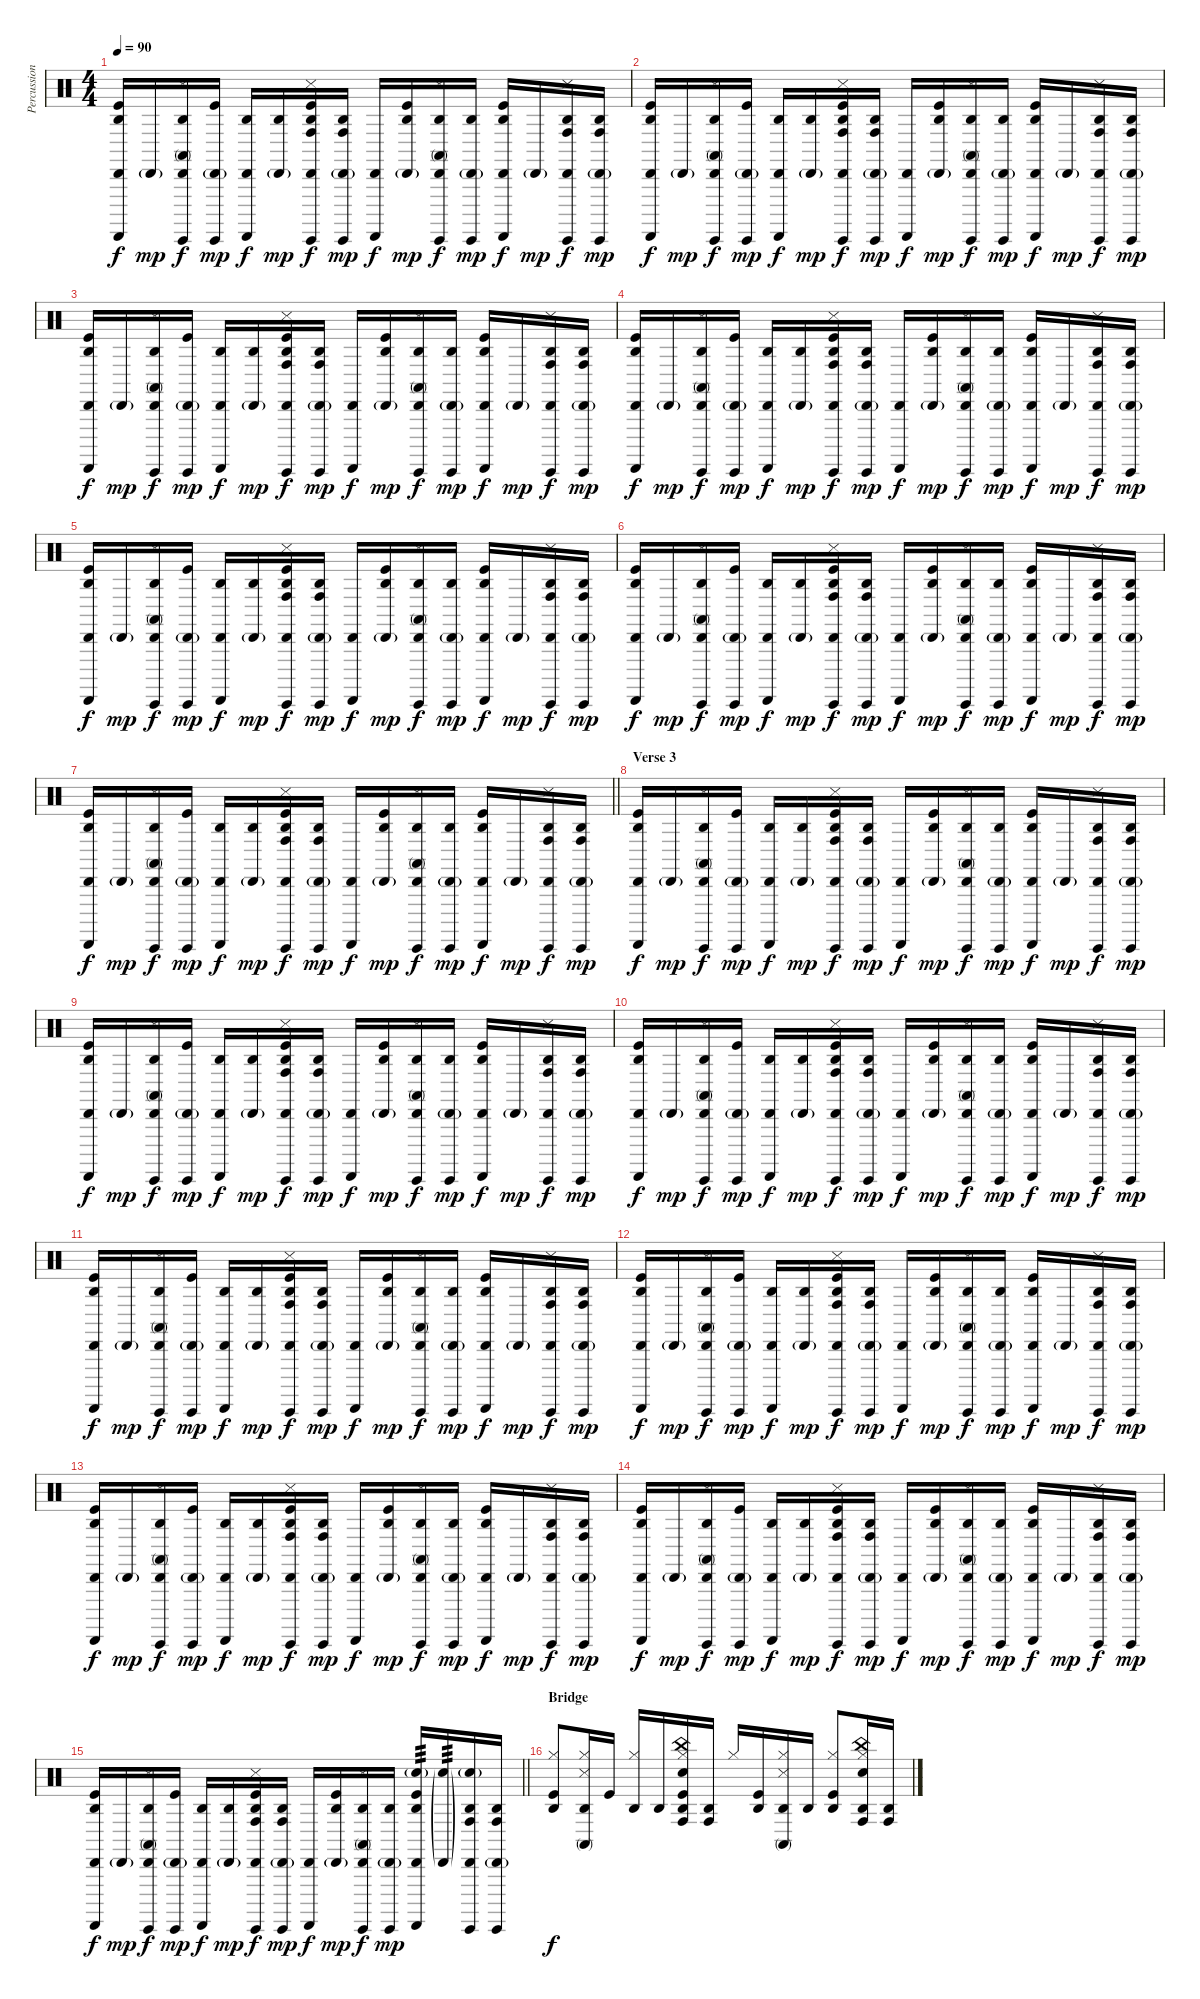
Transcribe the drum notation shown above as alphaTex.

\track ("Percussion" "Percussion") {instrument percussion}
\staff {score}
\articulation defaults
\ts (4 4)
\tempo 90
\clef neutral
\ks c
("Agogo high (hit)" "Cabasa (hit)" "Guiro (scrap-return)" "Kick (hit)").16{dy f} "Cabasa (hit)"{g}.16{dy mp} ("Agogo high (hit)" "Cabasa (hit)" "Conga high (mute)" "Snare (side stick) 3" "Guiro (hit)").16{dy f} ("Cabasa (hit)"{g} "Guiro (hit)" "Kick (hit)").16{dy mp} ("Agogo high (hit)" "Cabasa (hit)" "Guiro (scrap-return)").16{dy f} ("Agogo high (hit)" "Cabasa (hit)"{g}).16{dy mp} ("Agogo high (hit)" "Cabasa (hit)" "Conga high (hit)" "Snare (side stick) 3" "Guiro (hit)" "Kick (hit)").16{dy f} ("Agogo high (hit)" "Cabasa (hit)"{g} "Conga high (hit)" "Guiro (hit)").16{dy mp} ("Cabasa (hit)" "Guiro (scrap-return)").16{dy f} ("Agogo high (hit)" "Cabasa (hit)"{g} "Kick (hit)").16{dy mp} ("Agogo high (hit)" "Cabasa (hit)" "Conga high (mute)" "Snare (side stick) 3" "Guiro (hit)").16{dy f} ("Agogo high (hit)" "Cabasa (hit)"{g} "Guiro (hit)").16{dy mp} ("Agogo high (hit)" "Cabasa (hit)" "Guiro (scrap-return)" "Kick (hit)").16{dy f} "Cabasa (hit)"{g}.16{dy mp} ("Agogo high (hit)" "Cabasa (hit)" "Conga high (hit)" "Snare (side stick) 3" "Guiro (hit)").16{dy f} ("Agogo high (hit)" "Cabasa (hit)"{g} "Conga high (hit)" "Guiro (hit)").16{dy mp} |
("Agogo high (hit)" "Cabasa (hit)" "Guiro (scrap-return)" "Kick (hit)").16{dy f} "Cabasa (hit)"{g}.16{dy mp} ("Agogo high (hit)" "Cabasa (hit)" "Conga high (mute)" "Snare (side stick) 3" "Guiro (hit)").16{dy f} ("Cabasa (hit)"{g} "Guiro (hit)" "Kick (hit)").16{dy mp} ("Agogo high (hit)" "Cabasa (hit)" "Guiro (scrap-return)").16{dy f} ("Agogo high (hit)" "Cabasa (hit)"{g}).16{dy mp} ("Agogo high (hit)" "Cabasa (hit)" "Conga high (hit)" "Snare (side stick) 3" "Guiro (hit)" "Kick (hit)").16{dy f} ("Agogo high (hit)" "Cabasa (hit)"{g} "Conga high (hit)" "Guiro (hit)").16{dy mp} ("Cabasa (hit)" "Guiro (scrap-return)").16{dy f} ("Agogo high (hit)" "Cabasa (hit)"{g} "Kick (hit)").16{dy mp} ("Agogo high (hit)" "Cabasa (hit)" "Conga high (mute)" "Snare (side stick) 3" "Guiro (hit)").16{dy f} ("Agogo high (hit)" "Cabasa (hit)"{g} "Guiro (hit)").16{dy mp} ("Agogo high (hit)" "Cabasa (hit)" "Guiro (scrap-return)" "Kick (hit)").16{dy f} "Cabasa (hit)"{g}.16{dy mp} ("Agogo high (hit)" "Cabasa (hit)" "Conga high (hit)" "Snare (side stick) 3" "Guiro (hit)").16{dy f} ("Agogo high (hit)" "Cabasa (hit)"{g} "Conga high (hit)" "Guiro (hit)").16{dy mp} |
("Agogo high (hit)" "Cabasa (hit)" "Guiro (scrap-return)" "Kick (hit)").16{dy f} "Cabasa (hit)"{g}.16{dy mp} ("Agogo high (hit)" "Cabasa (hit)" "Conga high (mute)" "Snare (side stick) 3" "Guiro (hit)").16{dy f} ("Cabasa (hit)"{g} "Guiro (hit)" "Kick (hit)").16{dy mp} ("Agogo high (hit)" "Cabasa (hit)" "Guiro (scrap-return)").16{dy f} ("Agogo high (hit)" "Cabasa (hit)"{g}).16{dy mp} ("Agogo high (hit)" "Cabasa (hit)" "Conga high (hit)" "Snare (side stick) 3" "Guiro (hit)" "Kick (hit)").16{dy f} ("Agogo high (hit)" "Cabasa (hit)"{g} "Conga high (hit)" "Guiro (hit)").16{dy mp} ("Cabasa (hit)" "Guiro (scrap-return)").16{dy f} ("Agogo high (hit)" "Cabasa (hit)"{g} "Kick (hit)").16{dy mp} ("Agogo high (hit)" "Cabasa (hit)" "Conga high (mute)" "Snare (side stick) 3" "Guiro (hit)").16{dy f} ("Agogo high (hit)" "Cabasa (hit)"{g} "Guiro (hit)").16{dy mp} ("Agogo high (hit)" "Cabasa (hit)" "Guiro (scrap-return)" "Kick (hit)").16{dy f} "Cabasa (hit)"{g}.16{dy mp} ("Agogo high (hit)" "Cabasa (hit)" "Conga high (hit)" "Snare (side stick) 3" "Guiro (hit)").16{dy f} ("Agogo high (hit)" "Cabasa (hit)"{g} "Conga high (hit)" "Guiro (hit)").16{dy mp} |
("Agogo high (hit)" "Cabasa (hit)" "Guiro (scrap-return)" "Kick (hit)").16{dy f} "Cabasa (hit)"{g}.16{dy mp} ("Agogo high (hit)" "Cabasa (hit)" "Conga high (mute)" "Snare (side stick) 3" "Guiro (hit)").16{dy f} ("Cabasa (hit)"{g} "Guiro (hit)" "Kick (hit)").16{dy mp} ("Agogo high (hit)" "Cabasa (hit)" "Guiro (scrap-return)").16{dy f} ("Agogo high (hit)" "Cabasa (hit)"{g}).16{dy mp} ("Agogo high (hit)" "Cabasa (hit)" "Conga high (hit)" "Snare (side stick) 3" "Guiro (hit)" "Kick (hit)").16{dy f} ("Agogo high (hit)" "Cabasa (hit)"{g} "Conga high (hit)" "Guiro (hit)").16{dy mp} ("Cabasa (hit)" "Guiro (scrap-return)").16{dy f} ("Agogo high (hit)" "Cabasa (hit)"{g} "Kick (hit)").16{dy mp} ("Agogo high (hit)" "Cabasa (hit)" "Conga high (mute)" "Snare (side stick) 3" "Guiro (hit)").16{dy f} ("Agogo high (hit)" "Cabasa (hit)"{g} "Guiro (hit)").16{dy mp} ("Agogo high (hit)" "Cabasa (hit)" "Guiro (scrap-return)" "Kick (hit)").16{dy f} "Cabasa (hit)"{g}.16{dy mp} ("Agogo high (hit)" "Cabasa (hit)" "Conga high (hit)" "Snare (side stick) 3" "Guiro (hit)").16{dy f} ("Agogo high (hit)" "Cabasa (hit)"{g} "Conga high (hit)" "Guiro (hit)").16{dy mp} |
("Agogo high (hit)" "Cabasa (hit)" "Guiro (scrap-return)" "Kick (hit)").16{dy f} "Cabasa (hit)"{g}.16{dy mp} ("Agogo high (hit)" "Cabasa (hit)" "Conga high (mute)" "Snare (side stick) 3" "Guiro (hit)").16{dy f} ("Cabasa (hit)"{g} "Guiro (hit)" "Kick (hit)").16{dy mp} ("Agogo high (hit)" "Cabasa (hit)" "Guiro (scrap-return)").16{dy f} ("Agogo high (hit)" "Cabasa (hit)"{g}).16{dy mp} ("Agogo high (hit)" "Cabasa (hit)" "Conga high (hit)" "Snare (side stick) 3" "Guiro (hit)" "Kick (hit)").16{dy f} ("Agogo high (hit)" "Cabasa (hit)"{g} "Conga high (hit)" "Guiro (hit)").16{dy mp} ("Cabasa (hit)" "Guiro (scrap-return)").16{dy f} ("Agogo high (hit)" "Cabasa (hit)"{g} "Kick (hit)").16{dy mp} ("Agogo high (hit)" "Cabasa (hit)" "Conga high (mute)" "Snare (side stick) 3" "Guiro (hit)").16{dy f} ("Agogo high (hit)" "Cabasa (hit)"{g} "Guiro (hit)").16{dy mp} ("Agogo high (hit)" "Cabasa (hit)" "Guiro (scrap-return)" "Kick (hit)").16{dy f} "Cabasa (hit)"{g}.16{dy mp} ("Agogo high (hit)" "Cabasa (hit)" "Conga high (hit)" "Snare (side stick) 3" "Guiro (hit)").16{dy f} ("Agogo high (hit)" "Cabasa (hit)"{g} "Conga high (hit)" "Guiro (hit)").16{dy mp} |
("Agogo high (hit)" "Cabasa (hit)" "Guiro (scrap-return)" "Kick (hit)").16{dy f} "Cabasa (hit)"{g}.16{dy mp} ("Agogo high (hit)" "Cabasa (hit)" "Conga high (mute)" "Snare (side stick) 3" "Guiro (hit)").16{dy f} ("Cabasa (hit)"{g} "Guiro (hit)" "Kick (hit)").16{dy mp} ("Agogo high (hit)" "Cabasa (hit)" "Guiro (scrap-return)").16{dy f} ("Agogo high (hit)" "Cabasa (hit)"{g}).16{dy mp} ("Agogo high (hit)" "Cabasa (hit)" "Conga high (hit)" "Snare (side stick) 3" "Guiro (hit)" "Kick (hit)").16{dy f} ("Agogo high (hit)" "Cabasa (hit)"{g} "Conga high (hit)" "Guiro (hit)").16{dy mp} ("Cabasa (hit)" "Guiro (scrap-return)").16{dy f} ("Agogo high (hit)" "Cabasa (hit)"{g} "Kick (hit)").16{dy mp} ("Agogo high (hit)" "Cabasa (hit)" "Conga high (mute)" "Snare (side stick) 3" "Guiro (hit)").16{dy f} ("Agogo high (hit)" "Cabasa (hit)"{g} "Guiro (hit)").16{dy mp} ("Agogo high (hit)" "Cabasa (hit)" "Guiro (scrap-return)" "Kick (hit)").16{dy f} "Cabasa (hit)"{g}.16{dy mp} ("Agogo high (hit)" "Cabasa (hit)" "Conga high (hit)" "Snare (side stick) 3" "Guiro (hit)").16{dy f} ("Agogo high (hit)" "Cabasa (hit)"{g} "Conga high (hit)" "Guiro (hit)").16{dy mp} |
\barLineRight lightlight
("Agogo high (hit)" "Cabasa (hit)" "Guiro (scrap-return)" "Kick (hit)").16{dy f} "Cabasa (hit)"{g}.16{dy mp} ("Agogo high (hit)" "Cabasa (hit)" "Conga high (mute)" "Snare (side stick) 3" "Guiro (hit)").16{dy f} ("Cabasa (hit)"{g} "Guiro (hit)" "Kick (hit)").16{dy mp} ("Agogo high (hit)" "Cabasa (hit)" "Guiro (scrap-return)").16{dy f} ("Agogo high (hit)" "Cabasa (hit)"{g}).16{dy mp} ("Agogo high (hit)" "Cabasa (hit)" "Conga high (hit)" "Snare (side stick) 3" "Guiro (hit)" "Kick (hit)").16{dy f} ("Agogo high (hit)" "Cabasa (hit)"{g} "Conga high (hit)" "Guiro (hit)").16{dy mp} ("Cabasa (hit)" "Guiro (scrap-return)").16{dy f} ("Agogo high (hit)" "Cabasa (hit)"{g} "Kick (hit)").16{dy mp} ("Agogo high (hit)" "Cabasa (hit)" "Conga high (mute)" "Snare (side stick) 3" "Guiro (hit)").16{dy f} ("Agogo high (hit)" "Cabasa (hit)"{g} "Guiro (hit)").16{dy mp} ("Agogo high (hit)" "Cabasa (hit)" "Guiro (scrap-return)" "Kick (hit)").16{dy f} "Cabasa (hit)"{g}.16{dy mp} ("Agogo high (hit)" "Cabasa (hit)" "Conga high (hit)" "Snare (side stick) 3" "Guiro (hit)").16{dy f} ("Agogo high (hit)" "Cabasa (hit)"{g} "Conga high (hit)" "Guiro (hit)").16{dy mp} |
\section ("" "Verse 3")
("Agogo high (hit)" "Cabasa (hit)" "Guiro (scrap-return)" "Kick (hit)").16{dy f} "Cabasa (hit)"{g}.16{dy mp} ("Agogo high (hit)" "Cabasa (hit)" "Conga high (mute)" "Snare (side stick) 3" "Guiro (hit)").16{dy f} ("Cabasa (hit)"{g} "Guiro (hit)" "Kick (hit)").16{dy mp} ("Agogo high (hit)" "Cabasa (hit)" "Guiro (scrap-return)").16{dy f} ("Agogo high (hit)" "Cabasa (hit)"{g}).16{dy mp} ("Agogo high (hit)" "Cabasa (hit)" "Conga high (hit)" "Snare (side stick) 3" "Guiro (hit)" "Kick (hit)").16{dy f} ("Agogo high (hit)" "Cabasa (hit)"{g} "Conga high (hit)" "Guiro (hit)").16{dy mp} ("Cabasa (hit)" "Guiro (scrap-return)").16{dy f} ("Agogo high (hit)" "Cabasa (hit)"{g} "Kick (hit)").16{dy mp} ("Agogo high (hit)" "Cabasa (hit)" "Conga high (mute)" "Snare (side stick) 3" "Guiro (hit)").16{dy f} ("Agogo high (hit)" "Cabasa (hit)"{g} "Guiro (hit)").16{dy mp} ("Agogo high (hit)" "Cabasa (hit)" "Guiro (scrap-return)" "Kick (hit)").16{dy f} "Cabasa (hit)"{g}.16{dy mp} ("Agogo high (hit)" "Cabasa (hit)" "Conga high (hit)" "Snare (side stick) 3" "Guiro (hit)").16{dy f} ("Agogo high (hit)" "Cabasa (hit)"{g} "Conga high (hit)" "Guiro (hit)").16{dy mp} |
("Agogo high (hit)" "Cabasa (hit)" "Guiro (scrap-return)" "Kick (hit)").16{dy f} "Cabasa (hit)"{g}.16{dy mp} ("Agogo high (hit)" "Cabasa (hit)" "Conga high (mute)" "Snare (side stick) 3" "Guiro (hit)").16{dy f} ("Cabasa (hit)"{g} "Guiro (hit)" "Kick (hit)").16{dy mp} ("Agogo high (hit)" "Cabasa (hit)" "Guiro (scrap-return)").16{dy f} ("Agogo high (hit)" "Cabasa (hit)"{g}).16{dy mp} ("Agogo high (hit)" "Cabasa (hit)" "Conga high (hit)" "Snare (side stick) 3" "Guiro (hit)" "Kick (hit)").16{dy f} ("Agogo high (hit)" "Cabasa (hit)"{g} "Conga high (hit)" "Guiro (hit)").16{dy mp} ("Cabasa (hit)" "Guiro (scrap-return)").16{dy f} ("Agogo high (hit)" "Cabasa (hit)"{g} "Kick (hit)").16{dy mp} ("Agogo high (hit)" "Cabasa (hit)" "Conga high (mute)" "Snare (side stick) 3" "Guiro (hit)").16{dy f} ("Agogo high (hit)" "Cabasa (hit)"{g} "Guiro (hit)").16{dy mp} ("Agogo high (hit)" "Cabasa (hit)" "Guiro (scrap-return)" "Kick (hit)").16{dy f} "Cabasa (hit)"{g}.16{dy mp} ("Agogo high (hit)" "Cabasa (hit)" "Conga high (hit)" "Snare (side stick) 3" "Guiro (hit)").16{dy f} ("Agogo high (hit)" "Cabasa (hit)"{g} "Conga high (hit)" "Guiro (hit)").16{dy mp} |
("Agogo high (hit)" "Cabasa (hit)" "Guiro (scrap-return)" "Kick (hit)").16{dy f} "Cabasa (hit)"{g}.16{dy mp} ("Agogo high (hit)" "Cabasa (hit)" "Conga high (mute)" "Snare (side stick) 3" "Guiro (hit)").16{dy f} ("Cabasa (hit)"{g} "Guiro (hit)" "Kick (hit)").16{dy mp} ("Agogo high (hit)" "Cabasa (hit)" "Guiro (scrap-return)").16{dy f} ("Agogo high (hit)" "Cabasa (hit)"{g}).16{dy mp} ("Agogo high (hit)" "Cabasa (hit)" "Conga high (hit)" "Snare (side stick) 3" "Guiro (hit)" "Kick (hit)").16{dy f} ("Agogo high (hit)" "Cabasa (hit)"{g} "Conga high (hit)" "Guiro (hit)").16{dy mp} ("Cabasa (hit)" "Guiro (scrap-return)").16{dy f} ("Agogo high (hit)" "Cabasa (hit)"{g} "Kick (hit)").16{dy mp} ("Agogo high (hit)" "Cabasa (hit)" "Conga high (mute)" "Snare (side stick) 3" "Guiro (hit)").16{dy f} ("Agogo high (hit)" "Cabasa (hit)"{g} "Guiro (hit)").16{dy mp} ("Agogo high (hit)" "Cabasa (hit)" "Guiro (scrap-return)" "Kick (hit)").16{dy f} "Cabasa (hit)"{g}.16{dy mp} ("Agogo high (hit)" "Cabasa (hit)" "Conga high (hit)" "Snare (side stick) 3" "Guiro (hit)").16{dy f} ("Agogo high (hit)" "Cabasa (hit)"{g} "Conga high (hit)" "Guiro (hit)").16{dy mp} |
("Agogo high (hit)" "Cabasa (hit)" "Guiro (scrap-return)" "Kick (hit)").16{dy f} "Cabasa (hit)"{g}.16{dy mp} ("Agogo high (hit)" "Cabasa (hit)" "Conga high (mute)" "Snare (side stick) 3" "Guiro (hit)").16{dy f} ("Cabasa (hit)"{g} "Guiro (hit)" "Kick (hit)").16{dy mp} ("Agogo high (hit)" "Cabasa (hit)" "Guiro (scrap-return)").16{dy f} ("Agogo high (hit)" "Cabasa (hit)"{g}).16{dy mp} ("Agogo high (hit)" "Cabasa (hit)" "Conga high (hit)" "Snare (side stick) 3" "Guiro (hit)" "Kick (hit)").16{dy f} ("Agogo high (hit)" "Cabasa (hit)"{g} "Conga high (hit)" "Guiro (hit)").16{dy mp} ("Cabasa (hit)" "Guiro (scrap-return)").16{dy f} ("Agogo high (hit)" "Cabasa (hit)"{g} "Kick (hit)").16{dy mp} ("Agogo high (hit)" "Cabasa (hit)" "Conga high (mute)" "Snare (side stick) 3" "Guiro (hit)").16{dy f} ("Agogo high (hit)" "Cabasa (hit)"{g} "Guiro (hit)").16{dy mp} ("Agogo high (hit)" "Cabasa (hit)" "Guiro (scrap-return)" "Kick (hit)").16{dy f} "Cabasa (hit)"{g}.16{dy mp} ("Agogo high (hit)" "Cabasa (hit)" "Conga high (hit)" "Snare (side stick) 3" "Guiro (hit)").16{dy f} ("Agogo high (hit)" "Cabasa (hit)"{g} "Conga high (hit)" "Guiro (hit)").16{dy mp} |
("Agogo high (hit)" "Cabasa (hit)" "Guiro (scrap-return)" "Kick (hit)").16{dy f} "Cabasa (hit)"{g}.16{dy mp} ("Agogo high (hit)" "Cabasa (hit)" "Conga high (mute)" "Snare (side stick) 3" "Guiro (hit)").16{dy f} ("Cabasa (hit)"{g} "Guiro (hit)" "Kick (hit)").16{dy mp} ("Agogo high (hit)" "Cabasa (hit)" "Guiro (scrap-return)").16{dy f} ("Agogo high (hit)" "Cabasa (hit)"{g}).16{dy mp} ("Agogo high (hit)" "Cabasa (hit)" "Conga high (hit)" "Snare (side stick) 3" "Guiro (hit)" "Kick (hit)").16{dy f} ("Agogo high (hit)" "Cabasa (hit)"{g} "Conga high (hit)" "Guiro (hit)").16{dy mp} ("Cabasa (hit)" "Guiro (scrap-return)").16{dy f} ("Agogo high (hit)" "Cabasa (hit)"{g} "Kick (hit)").16{dy mp} ("Agogo high (hit)" "Cabasa (hit)" "Conga high (mute)" "Snare (side stick) 3" "Guiro (hit)").16{dy f} ("Agogo high (hit)" "Cabasa (hit)"{g} "Guiro (hit)").16{dy mp} ("Agogo high (hit)" "Cabasa (hit)" "Guiro (scrap-return)" "Kick (hit)").16{dy f} "Cabasa (hit)"{g}.16{dy mp} ("Agogo high (hit)" "Cabasa (hit)" "Conga high (hit)" "Snare (side stick) 3" "Guiro (hit)").16{dy f} ("Agogo high (hit)" "Cabasa (hit)"{g} "Conga high (hit)" "Guiro (hit)").16{dy mp} |
("Agogo high (hit)" "Cabasa (hit)" "Guiro (scrap-return)" "Kick (hit)").16{dy f} "Cabasa (hit)"{g}.16{dy mp} ("Agogo high (hit)" "Cabasa (hit)" "Conga high (mute)" "Snare (side stick) 3" "Guiro (hit)").16{dy f} ("Cabasa (hit)"{g} "Guiro (hit)" "Kick (hit)").16{dy mp} ("Agogo high (hit)" "Cabasa (hit)" "Guiro (scrap-return)").16{dy f} ("Agogo high (hit)" "Cabasa (hit)"{g}).16{dy mp} ("Agogo high (hit)" "Cabasa (hit)" "Conga high (hit)" "Snare (side stick) 3" "Guiro (hit)" "Kick (hit)").16{dy f} ("Agogo high (hit)" "Cabasa (hit)"{g} "Conga high (hit)" "Guiro (hit)").16{dy mp} ("Cabasa (hit)" "Guiro (scrap-return)").16{dy f} ("Agogo high (hit)" "Cabasa (hit)"{g} "Kick (hit)").16{dy mp} ("Agogo high (hit)" "Cabasa (hit)" "Conga high (mute)" "Snare (side stick) 3" "Guiro (hit)").16{dy f} ("Agogo high (hit)" "Cabasa (hit)"{g} "Guiro (hit)").16{dy mp} ("Agogo high (hit)" "Cabasa (hit)" "Guiro (scrap-return)" "Kick (hit)").16{dy f} "Cabasa (hit)"{g}.16{dy mp} ("Agogo high (hit)" "Cabasa (hit)" "Conga high (hit)" "Snare (side stick) 3" "Guiro (hit)").16{dy f} ("Agogo high (hit)" "Cabasa (hit)"{g} "Conga high (hit)" "Guiro (hit)").16{dy mp} |
("Agogo high (hit)" "Cabasa (hit)" "Guiro (scrap-return)" "Kick (hit)").16{dy f} "Cabasa (hit)"{g}.16{dy mp} ("Agogo high (hit)" "Cabasa (hit)" "Conga high (mute)" "Snare (side stick) 3" "Guiro (hit)").16{dy f} ("Cabasa (hit)"{g} "Guiro (hit)" "Kick (hit)").16{dy mp} ("Agogo high (hit)" "Cabasa (hit)" "Guiro (scrap-return)").16{dy f} ("Agogo high (hit)" "Cabasa (hit)"{g}).16{dy mp} ("Agogo high (hit)" "Cabasa (hit)" "Conga high (hit)" "Snare (side stick) 3" "Guiro (hit)" "Kick (hit)").16{dy f} ("Agogo high (hit)" "Cabasa (hit)"{g} "Conga high (hit)" "Guiro (hit)").16{dy mp} ("Cabasa (hit)" "Guiro (scrap-return)").16{dy f} ("Agogo high (hit)" "Cabasa (hit)"{g} "Kick (hit)").16{dy mp} ("Agogo high (hit)" "Cabasa (hit)" "Conga high (mute)" "Snare (side stick) 3" "Guiro (hit)").16{dy f} ("Agogo high (hit)" "Cabasa (hit)"{g} "Guiro (hit)").16{dy mp} ("Agogo high (hit)" "Cabasa (hit)" "Guiro (scrap-return)" "Kick (hit)").16{dy f} "Cabasa (hit)"{g}.16{dy mp} ("Agogo high (hit)" "Cabasa (hit)" "Conga high (hit)" "Snare (side stick) 3" "Guiro (hit)").16{dy f} ("Agogo high (hit)" "Cabasa (hit)"{g} "Conga high (hit)" "Guiro (hit)").16{dy mp} |
\barLineRight lightlight
("Agogo high (hit)" "Cabasa (hit)" "Guiro (scrap-return)" "Kick (hit)").16{dy f} "Cabasa (hit)"{g}.16{dy mp} ("Agogo high (hit)" "Cabasa (hit)" "Conga high (mute)" "Snare (side stick) 3" "Guiro (hit)").16{dy f} ("Cabasa (hit)"{g} "Guiro (hit)" "Kick (hit)").16{dy mp} ("Agogo high (hit)" "Cabasa (hit)" "Guiro (scrap-return)").16{dy f} ("Agogo high (hit)" "Cabasa (hit)"{g}).16{dy mp} ("Agogo high (hit)" "Cabasa (hit)" "Conga high (hit)" "Snare (side stick) 3" "Guiro (hit)" "Kick (hit)").16{dy f} ("Agogo high (hit)" "Cabasa (hit)"{g} "Conga high (hit)" "Guiro (hit)").16{dy mp} ("Cabasa (hit)" "Guiro (scrap-return)").16{dy f} ("Agogo high (hit)" "Cabasa (hit)"{g} "Kick (hit)").16{dy mp} ("Agogo high (hit)" "Cabasa (hit)" "Conga high (mute)" "Snare (side stick) 3" "Guiro (hit)").16{dy f} ("Agogo high (hit)" "Cabasa (hit)"{g} "Guiro (hit)").16{dy mp} ("Agogo high (hit)" "Cabasa (hit)" "Snare (hit) 2"{g} "Guiro (scrap-return)" "Kick (hit)").16{tp 3} ("Cabasa (hit)"{g} "Snare (hit) 2"{g}).16{tp 3} ("Agogo high (hit)" "Cabasa (hit)" "Conga high (hit)" "Snare (hit) 2"{g} "Guiro (hit)").16 ("Agogo high (hit)" "Cabasa (hit)"{g} "Conga high (hit)" "Guiro (hit)").16 |
\section ("" "Bridge")
("Agogo high (hit)" "Hi-Hat (closed)" "Kick (hit)").8{dy f} ("Agogo high (hit)" "Hi-Hat (closed)" "Conga high (mute)" "Snare (side stick) 3").16 "Kick (hit)".16 ("Agogo high (hit)" "Hi-Hat (closed)").16 "Agogo high (hit)".16 ("Agogo high (hit)" "Hi-Hat (closed)" "Conga high (hit)" "Snare (hit) 2" "China (hit)" "Kick (hit)").16 ("Agogo high (hit)" "Conga high (hit)").16 "Hi-Hat (closed)".16 ("Agogo high (hit)" "Kick (hit)").16 ("Agogo high (hit)" "Hi-Hat (closed)" "Conga high (mute)" "Snare (side stick) 3").16 "Agogo high (hit)".16 ("Agogo high (hit)" "Hi-Hat (closed)" "Kick (hit)").8 ("Agogo high (hit)" "Hi-Hat (closed)" "Conga high (hit)" "Snare (hit) 2" "China (hit)").16 ("Agogo high (hit)" "Conga high (hit)").16
